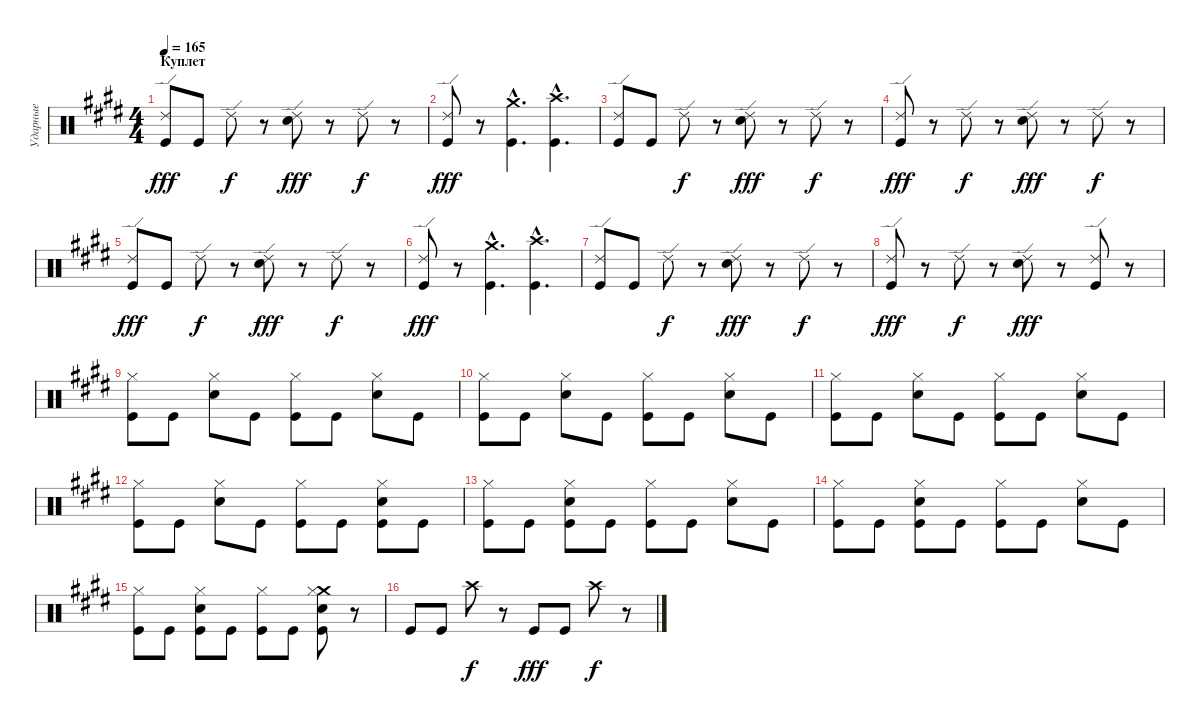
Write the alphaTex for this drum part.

\track ("Ударные" "Ударные") {instrument percussion}
\staff {score}
\articulation defaults
\ts (4 4)
\section ("" "Куплет")
\tempo 165
\clef neutral
\ks e
("Ride (edge) 2" "Kick (hit)").8{dy fff} "Kick (hit)".8 "Ride (edge) 2".8{dy f} r.8 ("Ride (edge) 2" "Snare (hit) 2").8{dy fff} r.8 "Ride (edge) 2".8{dy f} r.8 |
("Ride (edge) 2" "Kick (hit)").8{dy fff} r.8 ("Crash medium (hit)"{hac} "Kick (hit)"{hac}).4{d} ("Crash high (hit)"{hac} "Kick (hit)"{hac}).4{d} |
("Ride (edge) 2" "Kick (hit)").8 "Kick (hit)".8 "Ride (edge) 2".8{dy f} r.8 ("Ride (edge) 2" "Snare (hit) 2").8{dy fff} r.8 "Ride (edge) 2".8{dy f} r.8 |
("Ride (edge) 2" "Kick (hit)").8{dy fff} r.8 "Ride (edge) 2".8{dy f} r.8 ("Ride (edge) 2" "Snare (hit) 2").8{dy fff} r.8 "Ride (edge) 2".8{dy f} r.8 |
("Ride (edge) 2" "Kick (hit)").8{dy fff} "Kick (hit)".8 "Ride (edge) 2".8{dy f} r.8 ("Ride (edge) 2" "Snare (hit) 2").8{dy fff} r.8 "Ride (edge) 2".8{dy f} r.8 |
("Ride (edge) 2" "Kick (hit)").8{dy fff} r.8 ("Crash medium (hit)"{hac} "Kick (hit)"{hac}).4{d} ("Crash high (hit)"{hac} "Kick (hit)"{hac}).4{d} |
("Ride (edge) 2" "Kick (hit)").8 "Kick (hit)".8 "Ride (edge) 2".8{dy f} r.8 ("Ride (edge) 2" "Snare (hit) 2").8{dy fff} r.8 "Ride (edge) 2".8{dy f} r.8 |
("Ride (edge) 2" "Kick (hit)").8{dy fff} r.8 "Ride (edge) 2".8{dy f} r.8 ("Ride (edge) 2" "Snare (hit) 2").8{dy fff} r.8 ("Ride (edge) 2" "Kick (hit)").8 r.8 |
("Hi-Hat (closed)" "Kick (hit)").8 "Kick (hit)".8 ("Hi-Hat (closed)" "Snare (hit) 2").8 "Kick (hit)".8 ("Hi-Hat (closed)" "Kick (hit)").8 "Kick (hit)".8 ("Hi-Hat (closed)" "Snare (hit) 2").8 "Kick (hit)".8 |
("Hi-Hat (closed)" "Kick (hit)").8 "Kick (hit)".8 ("Hi-Hat (closed)" "Snare (hit) 2").8 "Kick (hit)".8 ("Hi-Hat (closed)" "Kick (hit)").8 "Kick (hit)".8 ("Hi-Hat (closed)" "Snare (hit) 2").8 "Kick (hit)".8 |
("Hi-Hat (closed)" "Kick (hit)").8 "Kick (hit)".8 ("Hi-Hat (closed)" "Snare (hit) 2").8 "Kick (hit)".8 ("Hi-Hat (closed)" "Kick (hit)").8 "Kick (hit)".8 ("Hi-Hat (closed)" "Snare (hit) 2").8 "Kick (hit)".8 |
("Hi-Hat (closed)" "Kick (hit)").8 "Kick (hit)".8 ("Hi-Hat (closed)" "Snare (hit) 2").8 "Kick (hit)".8 ("Hi-Hat (closed)" "Kick (hit)").8 "Kick (hit)".8 ("Hi-Hat (closed)" "Snare (hit) 2" "Kick (hit)").8 "Kick (hit)".8 |
("Hi-Hat (closed)" "Kick (hit)").8 "Kick (hit)".8 ("Hi-Hat (closed)" "Snare (hit) 2" "Kick (hit)").8 "Kick (hit)".8 ("Hi-Hat (closed)" "Kick (hit)").8 "Kick (hit)".8 ("Hi-Hat (closed)" "Snare (hit) 2").8 "Kick (hit)".8 |
("Hi-Hat (closed)" "Kick (hit)").8 "Kick (hit)".8 ("Hi-Hat (closed)" "Snare (hit) 2" "Kick (hit)").8 "Kick (hit)".8 ("Hi-Hat (closed)" "Kick (hit)").8 "Kick (hit)".8 ("Hi-Hat (closed)" "Snare (hit) 2").8 "Kick (hit)".8 |
("Hi-Hat (closed)" "Kick (hit)").8 "Kick (hit)".8 ("Hi-Hat (closed)" "Snare (hit) 2" "Kick (hit)").8 "Kick (hit)".8 ("Hi-Hat (closed)" "Kick (hit)").8 "Kick (hit)".8 ("Crash medium (hit)" "Hi-Hat (closed)" "Snare (hit) 2" "Kick (hit)").8 r.8 |
"Kick (hit)".8 "Kick (hit)".8 "Crash high (hit)".8{dy f} r.8 "Kick (hit)".8{dy fff} "Kick (hit)".8 "Crash high (hit)".8{dy f} r.8
